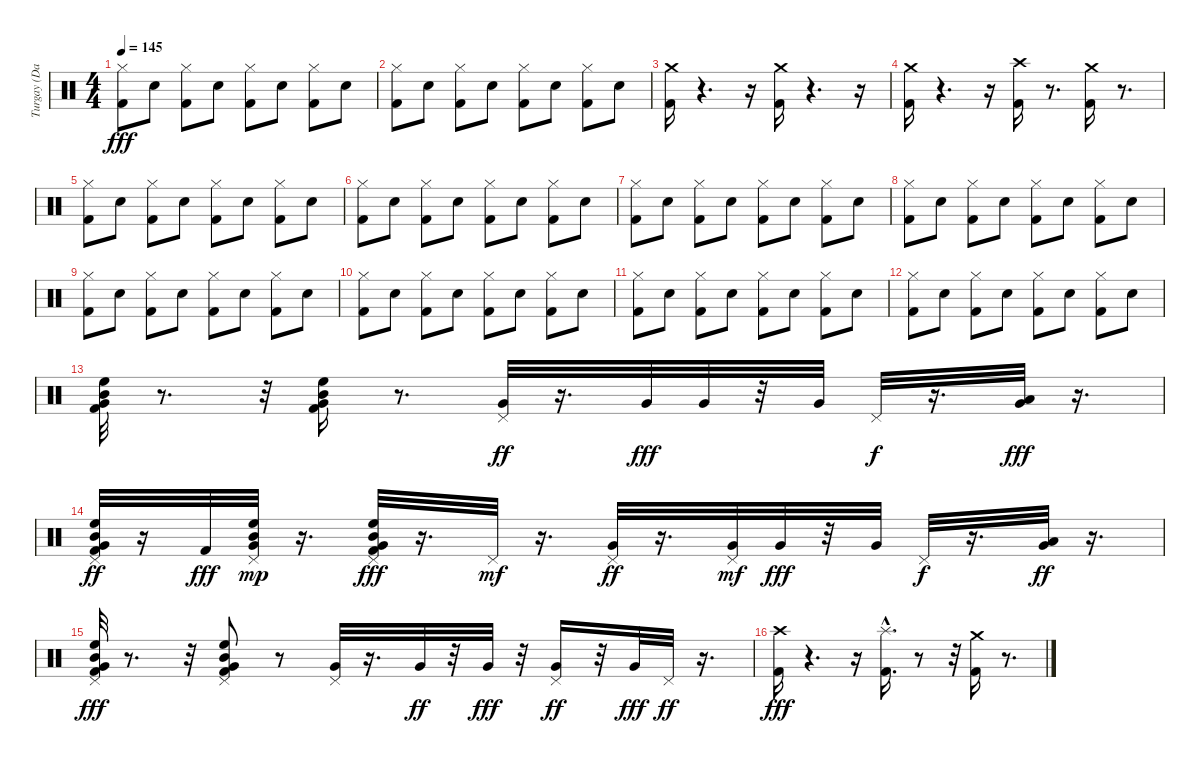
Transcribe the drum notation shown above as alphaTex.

\track ("Turgay (Davul)" "Turgay (Da") {instrument percussion}
\staff {score}
\articulation defaults
\ts (4 4)
\tempo 145
\clef neutral
\ks c
("Hi-Hat (closed)" "Kick (hit) 2").8{dy fff} "Electric Snare (hit)".8 ("Hi-Hat (closed)" "Kick (hit) 2").8 "Electric Snare (hit)".8 ("Hi-Hat (closed)" "Kick (hit) 2").8 "Electric Snare (hit)".8 ("Hi-Hat (closed)" "Kick (hit) 2").8 "Electric Snare (hit)".8 |
("Hi-Hat (closed)" "Kick (hit) 2").8 "Electric Snare (hit)".8 ("Hi-Hat (closed)" "Kick (hit) 2").8 "Electric Snare (hit)".8 ("Hi-Hat (closed)" "Kick (hit) 2").8 "Electric Snare (hit)".8 ("Hi-Hat (closed)" "Kick (hit) 2").8 "Electric Snare (hit)".8 |
("Crash medium (hit)" "Kick (hit) 2").16 r.4{d} r.16 ("Crash medium (hit)" "Kick (hit) 2").16 r.4{d} r.16 |
("Crash medium (hit)" "Kick (hit) 2").16 r.4{d} r.16 ("Kick (hit) 2" "Crash high (hit)").16 r.8{d} ("Kick (hit) 2" "Crash medium (hit)").16 r.8{d} |
("Kick (hit) 2" "Hi-Hat (closed)").8 "Electric Snare (hit)".8 ("Kick (hit) 2" "Hi-Hat (closed)").8 "Electric Snare (hit)".8 ("Kick (hit) 2" "Hi-Hat (closed)").8 "Electric Snare (hit)".8 ("Kick (hit) 2" "Hi-Hat (closed)").8 "Electric Snare (hit)".8 |
("Kick (hit) 2" "Hi-Hat (closed)").8 "Electric Snare (hit)".8 ("Kick (hit) 2" "Hi-Hat (closed)").8 "Electric Snare (hit)".8 ("Kick (hit) 2" "Hi-Hat (closed)").8 "Electric Snare (hit)".8 ("Kick (hit) 2" "Hi-Hat (closed)").8 "Electric Snare (hit)".8 |
("Hi-Hat (closed)" "Kick (hit) 2").8 "Electric Snare (hit)".8 ("Hi-Hat (closed)" "Kick (hit) 2").8 "Electric Snare (hit)".8 ("Hi-Hat (closed)" "Kick (hit) 2").8 "Electric Snare (hit)".8 ("Hi-Hat (closed)" "Kick (hit) 2").8 "Electric Snare (hit)".8 |
("Kick (hit) 2" "Hi-Hat (closed)").8 "Electric Snare (hit)".8 ("Kick (hit) 2" "Hi-Hat (closed)").8 "Electric Snare (hit)".8 ("Kick (hit) 2" "Hi-Hat (closed)").8 "Electric Snare (hit)".8 ("Kick (hit) 2" "Hi-Hat (closed)").8 "Electric Snare (hit)".8 |
("Hi-Hat (closed)" "Kick (hit) 2").8 "Electric Snare (hit)".8 ("Hi-Hat (closed)" "Kick (hit) 2").8 "Electric Snare (hit)".8 ("Hi-Hat (closed)" "Kick (hit) 2").8 "Electric Snare (hit)".8 ("Hi-Hat (closed)" "Kick (hit) 2").8 "Electric Snare (hit)".8 |
("Kick (hit) 2" "Hi-Hat (closed)").8 "Electric Snare (hit)".8 ("Kick (hit) 2" "Hi-Hat (closed)").8 "Electric Snare (hit)".8 ("Kick (hit) 2" "Hi-Hat (closed)").8 "Electric Snare (hit)".8 ("Kick (hit) 2" "Hi-Hat (closed)").8 "Electric Snare (hit)".8 |
("Hi-Hat (closed)" "Kick (hit) 2").8 "Electric Snare (hit)".8 ("Hi-Hat (closed)" "Kick (hit) 2").8 "Electric Snare (hit)".8 ("Hi-Hat (closed)" "Kick (hit) 2").8 "Electric Snare (hit)".8 ("Hi-Hat (closed)" "Kick (hit) 2").8 "Electric Snare (hit)".8 |
("Hi-Hat (closed)" "Kick (hit) 2").8 "Electric Snare (hit)".8 ("Hi-Hat (closed)" "Kick (hit) 2").8 "Electric Snare (hit)".8 ("Hi-Hat (closed)" "Kick (hit) 2").8 "Electric Snare (hit)".8 ("Hi-Hat (closed)" "Kick (hit) 2").8 "Electric Snare (hit)".8 |
("Mid Tom (hit)" "Very Low Tom (hit)" "High Floor Tom (hit)" "Kick (hit) 2").32 r.8{d} r.32 ("Kick (hit) 2" "Mid Tom (hit)" "Very Low Tom (hit)" "High Floor Tom (hit)").16 r.8{d} ("Very Low Tom (hit)" "Pedal Hi-Hat (hit)").32{dy ff} r.16{d} "Very Low Tom (hit)".32{dy fff} "Very Low Tom (hit)".32 r.32 "Very Low Tom (hit)".32 "Pedal Hi-Hat (hit)".32{dy f} r.16{d} ("Very Low Tom (hit)" "Low Floor Tom (hit)").32{dy fff} r.16{d} |
("Kick (hit) 2" "Mid Tom (hit)" "High Floor Tom (hit)" "Pedal Hi-Hat (hit)" "Very Low Tom (hit)").32{dy ff} r.16 "Kick (hit) 2".32{dy fff} ("Very Low Tom (hit)" "Mid Tom (hit)" "High Floor Tom (hit)" "Pedal Hi-Hat (hit)").32{dy mp} r.16{d} ("Kick (hit) 2" "Mid Tom (hit)" "Very Low Tom (hit)" "High Floor Tom (hit)" "Pedal Hi-Hat (hit)").32{dy fff} r.16{d} "Pedal Hi-Hat (hit)".32{dy mf} r.16{d} ("Very Low Tom (hit)" "Pedal Hi-Hat (hit)").32{dy ff} r.16{d} ("Very Low Tom (hit)" "Pedal Hi-Hat (hit)").32{dy mf} "Very Low Tom (hit)".32{dy fff} r.32 "Very Low Tom (hit)".32 "Pedal Hi-Hat (hit)".32{dy f} r.16{d} ("Very Low Tom (hit)" "Low Floor Tom (hit)").32{dy ff} r.16{d} |
("Pedal Hi-Hat (hit)" "Mid Tom (hit)" "High Floor Tom (hit)" "Very Low Tom (hit)" "Kick (hit) 2").32{dy fff} r.8{d} r.32 ("Pedal Hi-Hat (hit)" "Kick (hit) 2" "Very Low Tom (hit)" "Mid Tom (hit)" "High Floor Tom (hit)").8 r.8 ("Pedal Hi-Hat (hit)" "Very Low Tom (hit)").32 r.16{d} "Very Low Tom (hit)".32{dy ff} r.32 "Very Low Tom (hit)".32{dy fff} r.32 ("Very Low Tom (hit)" "Pedal Hi-Hat (hit)").16{dy ff} r.32 "Very Low Tom (hit)".32{dy fff} "Pedal Hi-Hat (hit)".32{dy ff} r.16{d} |
("Crash high (hit)" "Kick (hit) 2").16{dy fff} r.4{d} r.16 ("Splash (hit)" "Kick (hit) 2"{hac}).16{d} r.8 r.32 ("Kick (hit) 2" "Crash medium (hit)").16 r.8{d}
